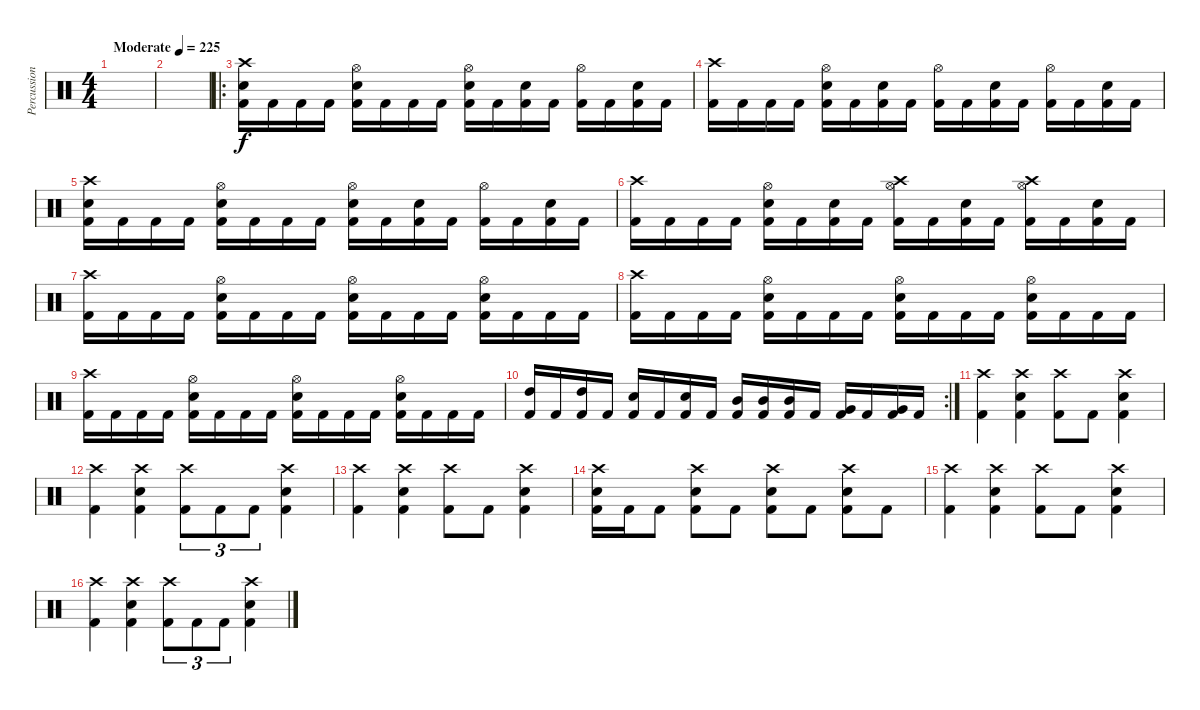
\track ("Percussion" "Percussion") {instrument percussion}
\staff {score}
\articulation defaults
\ts (4 4)
\tempo (225 "Moderate")
\clef neutral
\ks c
|
|
\ro
("Crash high (hit)" "Snare (hit) 2" "Kick (hit) 2").16 "Kick (hit) 2".16 "Kick (hit) 2".16 "Kick (hit) 2".16 ("Hi-Hat (open)" "Snare (hit) 2" "Kick (hit) 2").16 "Kick (hit) 2".16 "Kick (hit) 2".16 "Kick (hit) 2".16 ("Hi-Hat (open)" "Snare (hit) 2" "Kick (hit) 2").16 "Kick (hit) 2".16 ("Snare (hit) 2" "Kick (hit) 2").16 "Kick (hit) 2".16 ("Hi-Hat (open)" "Kick (hit) 2").16 "Kick (hit) 2".16 ("Snare (hit) 2" "Kick (hit) 2").16 "Kick (hit) 2".16 |
("Crash high (hit)" "Kick (hit) 2").16 "Kick (hit) 2".16 "Kick (hit) 2".16 "Kick (hit) 2".16 ("Hi-Hat (open)" "Snare (hit) 2" "Kick (hit) 2").16 "Kick (hit) 2".16 ("Snare (hit) 2" "Kick (hit) 2").16 "Kick (hit) 2".16 ("Hi-Hat (open)" "Kick (hit) 2").16 "Kick (hit) 2".16 ("Snare (hit) 2" "Kick (hit) 2").16 "Kick (hit) 2".16 ("Hi-Hat (open)" "Kick (hit) 2").16 "Kick (hit) 2".16 ("Snare (hit) 2" "Kick (hit) 2").16 "Kick (hit) 2".16 |
("Crash high (hit)" "Snare (hit) 2" "Kick (hit) 2").16 "Kick (hit) 2".16 "Kick (hit) 2".16 "Kick (hit) 2".16 ("Hi-Hat (open)" "Snare (hit) 2" "Kick (hit) 2").16 "Kick (hit) 2".16 "Kick (hit) 2".16 "Kick (hit) 2".16 ("Hi-Hat (open)" "Snare (hit) 2" "Kick (hit) 2").16 "Kick (hit) 2".16 ("Snare (hit) 2" "Kick (hit) 2").16 "Kick (hit) 2".16 ("Hi-Hat (open)" "Kick (hit) 2").16 "Kick (hit) 2".16 ("Snare (hit) 2" "Kick (hit) 2").16 "Kick (hit) 2".16 |
("Crash high (hit)" "Kick (hit) 2").16 "Kick (hit) 2".16 "Kick (hit) 2".16 "Kick (hit) 2".16 ("Hi-Hat (open)" "Snare (hit) 2" "Kick (hit) 2").16 "Kick (hit) 2".16 ("Snare (hit) 2" "Kick (hit) 2").16 "Kick (hit) 2".16 ("Crash high (hit)" "Hi-Hat (open)" "Kick (hit) 2").16 "Kick (hit) 2".16 ("Snare (hit) 2" "Kick (hit) 2").16 "Kick (hit) 2".16 ("Crash high (hit)" "Hi-Hat (open)" "Kick (hit) 2").16 "Kick (hit) 2".16 ("Snare (hit) 2" "Kick (hit) 2").16 "Kick (hit) 2".16 |
("Crash high (hit)" "Kick (hit) 2").16 "Kick (hit) 2".16 "Kick (hit) 2".16 "Kick (hit) 2".16 ("Hi-Hat (open)" "Snare (hit) 2" "Kick (hit) 2").16 "Kick (hit) 2".16 "Kick (hit) 2".16 "Kick (hit) 2".16 ("Hi-Hat (open)" "Snare (hit) 2" "Kick (hit) 2").16 "Kick (hit) 2".16 "Kick (hit) 2".16 "Kick (hit) 2".16 ("Hi-Hat (open)" "Snare (hit) 2" "Kick (hit) 2").16 "Kick (hit) 2".16 "Kick (hit) 2".16 "Kick (hit) 2".16 |
("Crash high (hit)" "Kick (hit) 2").16 "Kick (hit) 2".16 "Kick (hit) 2".16 "Kick (hit) 2".16 ("Hi-Hat (open)" "Snare (hit) 2" "Kick (hit) 2").16 "Kick (hit) 2".16 "Kick (hit) 2".16 "Kick (hit) 2".16 ("Hi-Hat (open)" "Snare (hit) 2" "Kick (hit) 2").16 "Kick (hit) 2".16 "Kick (hit) 2".16 "Kick (hit) 2".16 ("Hi-Hat (open)" "Snare (hit) 2" "Kick (hit) 2").16 "Kick (hit) 2".16 "Kick (hit) 2".16 "Kick (hit) 2".16 |
("Crash high (hit)" "Kick (hit) 2").16 "Kick (hit) 2".16 "Kick (hit) 2".16 "Kick (hit) 2".16 ("Hi-Hat (open)" "Snare (hit) 2" "Kick (hit) 2").16 "Kick (hit) 2".16 "Kick (hit) 2".16 "Kick (hit) 2".16 ("Hi-Hat (open)" "Snare (hit) 2" "Kick (hit) 2").16 "Kick (hit) 2".16 "Kick (hit) 2".16 "Kick (hit) 2".16 ("Hi-Hat (open)" "Snare (hit) 2" "Kick (hit) 2").16 "Kick (hit) 2".16 "Kick (hit) 2".16 "Kick (hit) 2".16 |
\rc 2
("High Tom (hit)" "Kick (hit) 2").16 "Kick (hit) 2".16 ("High Tom (hit)" "Kick (hit) 2").16 "Kick (hit) 2".16 ("Snare (hit) 2" "Kick (hit) 2").16 "Kick (hit) 2".16 ("Snare (hit) 2" "Kick (hit) 2").16 "Kick (hit) 2".16 ("Mid Tom (hit)" "Kick (hit) 2").16 ("Mid Tom (hit)" "Kick (hit) 2").16 ("Mid Tom (hit)" "Kick (hit) 2").16 "Kick (hit) 2".16 ("Very Low Tom (hit)" "Kick (hit) 2").16 "Kick (hit) 2".16 ("Very Low Tom (hit)" "Kick (hit) 2").16 "Kick (hit) 2".16 |
("Crash high (hit)" "Kick (hit) 2").4 ("Crash high (hit)" "Snare (hit) 2" "Kick (hit) 2").4 ("Crash high (hit)" "Kick (hit) 2").8 "Kick (hit) 2".8 ("Crash high (hit)" "Snare (hit) 2" "Kick (hit) 2").4 |
("Crash high (hit)" "Kick (hit) 2").4 ("Crash high (hit)" "Snare (hit) 2" "Kick (hit) 2").4 ("Crash high (hit)" "Kick (hit) 2").8{tu (3 2)} "Kick (hit) 2".8{tu (3 2)} "Kick (hit) 2".8{tu (3 2)} ("Crash high (hit)" "Snare (hit) 2" "Kick (hit) 2").4 |
("Crash high (hit)" "Kick (hit) 2").4 ("Crash high (hit)" "Snare (hit) 2" "Kick (hit) 2").4 ("Crash high (hit)" "Kick (hit) 2").8 "Kick (hit) 2".8 ("Crash high (hit)" "Snare (hit) 2" "Kick (hit) 2").4 |
("Crash high (hit)" "Snare (hit) 2" "Kick (hit) 2").16 "Kick (hit) 2".16 "Kick (hit) 2".8 ("Crash high (hit)" "Snare (hit) 2" "Kick (hit) 2").8 "Kick (hit) 2".8 ("Crash high (hit)" "Snare (hit) 2" "Kick (hit) 2").8 "Kick (hit) 2".8 ("Crash high (hit)" "Snare (hit) 2" "Kick (hit) 2").8 "Kick (hit) 2".8 |
("Crash high (hit)" "Kick (hit) 2").4 ("Crash high (hit)" "Snare (hit) 2" "Kick (hit) 2").4 ("Crash high (hit)" "Kick (hit) 2").8 "Kick (hit) 2".8 ("Crash high (hit)" "Snare (hit) 2" "Kick (hit) 2").4 |
("Crash high (hit)" "Kick (hit) 2").4 ("Crash high (hit)" "Snare (hit) 2" "Kick (hit) 2").4 ("Crash high (hit)" "Kick (hit) 2").8{tu (3 2)} "Kick (hit) 2".8{tu (3 2)} "Kick (hit) 2".8{tu (3 2)} ("Crash high (hit)" "Snare (hit) 2" "Kick (hit) 2").4
